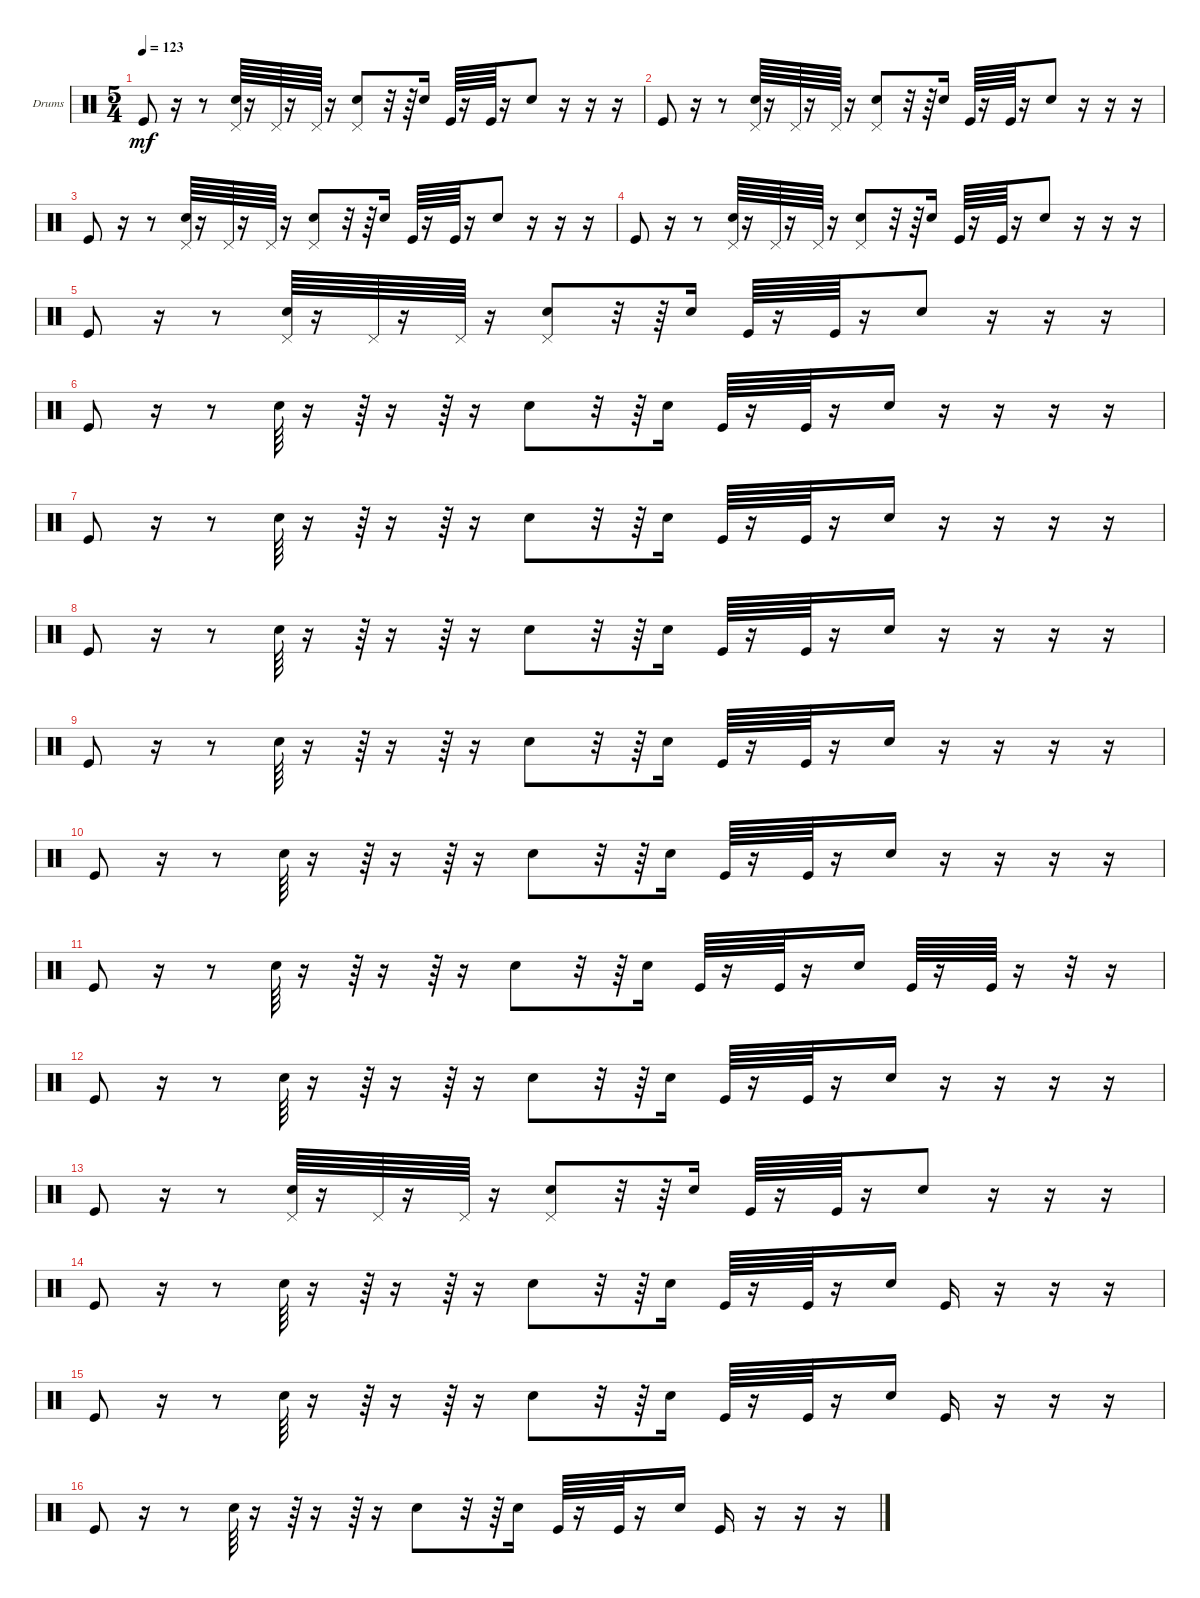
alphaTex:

\defaultSystemsLayout 4
\bracketExtendMode groupsimilarinstruments
\firstSystemTrackNameOrientation horizontal
\otherSystemsTrackNameOrientation horizontal
\track ("Drumkit" "Drums") {instrument percussion}
\staff {score}
\articulation defaults
\ts (5 4)
\tempo 123
\clef neutral
\ks c "Kick (hit)".8{dy mf}
r.16 r.8 ("Snare (hit) 2" "Pedal Hi-Hat (hit)").64 r.16 "Pedal Hi-Hat (hit)".64 r.16 "Pedal Hi-Hat (hit)".64 r.16 ("Snare (hit) 2" "Pedal Hi-Hat (hit)").8 r.32 r.64 "Snare (hit) 2".16 "Kick (hit)".64 r.16 "Kick (hit)".64 r.16 "Snare (hit) 2".8 r.16 r.16 r.16 |
"Kick (hit)".8 r.16 r.8 ("Snare (hit) 2" "Pedal Hi-Hat (hit)").64 r.16 "Pedal Hi-Hat (hit)".64 r.16 "Pedal Hi-Hat (hit)".64 r.16 ("Snare (hit) 2" "Pedal Hi-Hat (hit)").8 r.32 r.64 "Snare (hit) 2".16 "Kick (hit)".64 r.16 "Kick (hit)".64 r.16 "Snare (hit) 2".8 r.16 r.16 r.16 |
"Kick (hit)".8 r.16 r.8 ("Snare (hit) 2" "Pedal Hi-Hat (hit)").64 r.16 "Pedal Hi-Hat (hit)".64 r.16 "Pedal Hi-Hat (hit)".64 r.16 ("Snare (hit) 2" "Pedal Hi-Hat (hit)").8 r.32 r.64 "Snare (hit) 2".16 "Kick (hit)".64 r.16 "Kick (hit)".64 r.16 "Snare (hit) 2".8 r.16 r.16 r.16 |
"Kick (hit)".8 r.16 r.8 ("Snare (hit) 2" "Pedal Hi-Hat (hit)").64 r.16 "Pedal Hi-Hat (hit)".64 r.16 "Pedal Hi-Hat (hit)".64 r.16 ("Snare (hit) 2" "Pedal Hi-Hat (hit)").8 r.32 r.64 "Snare (hit) 2".16 "Kick (hit)".64 r.16 "Kick (hit)".64 r.16 "Snare (hit) 2".8 r.16 r.16 r.16 |
"Kick (hit)".8 r.16 r.8 ("Snare (hit) 2" "Pedal Hi-Hat (hit)").64 r.16 "Pedal Hi-Hat (hit)".64 r.16 "Pedal Hi-Hat (hit)".64 r.16 ("Snare (hit) 2" "Pedal Hi-Hat (hit)").8 r.32 r.64 "Snare (hit) 2".16 "Kick (hit)".64 r.16 "Kick (hit)".64 r.16 "Snare (hit) 2".8 r.16 r.16 r.16 |
"Kick (hit)".8 r.16 r.8 "Snare (hit) 2".64 r.16 r.64 r.16 r.64 r.16 "Snare (hit) 2".8 r.32 r.64 "Snare (hit) 2".16 "Kick (hit)".64 r.16 "Kick (hit)".64 r.16 "Snare (hit) 2".16 r.16 r.16 r.16 r.16 |
"Kick (hit)".8 r.16 r.8 "Snare (hit) 2".64 r.16 r.64 r.16 r.64 r.16 "Snare (hit) 2".8 r.32 r.64 "Snare (hit) 2".16 "Kick (hit)".64 r.16 "Kick (hit)".64 r.16 "Snare (hit) 2".16 r.16 r.16 r.16 r.16 |
"Kick (hit)".8 r.16 r.8 "Snare (hit) 2".64 r.16 r.64 r.16 r.64 r.16 "Snare (hit) 2".8 r.32 r.64 "Snare (hit) 2".16 "Kick (hit)".64 r.16 "Kick (hit)".64 r.16 "Snare (hit) 2".16 r.16 r.16 r.16 r.16 |
"Kick (hit)".8 r.16 r.8 "Snare (hit) 2".64 r.16 r.64 r.16 r.64 r.16 "Snare (hit) 2".8 r.32 r.64 "Snare (hit) 2".16 "Kick (hit)".64 r.16 "Kick (hit)".64 r.16 "Snare (hit) 2".16 r.16 r.16 r.16 r.16 |
"Kick (hit)".8 r.16 r.8 "Snare (hit) 2".64 r.16 r.64 r.16 r.64 r.16 "Snare (hit) 2".8 r.32 r.64 "Snare (hit) 2".16 "Kick (hit)".64 r.16 "Kick (hit)".64 r.16 "Snare (hit) 2".16 r.16 r.16 r.16 r.16 |
"Kick (hit)".8 r.16 r.8 "Snare (hit) 2".64 r.16 r.64 r.16 r.64 r.16 "Snare (hit) 2".8 r.32 r.64 "Snare (hit) 2".16 "Kick (hit)".64 r.16 "Kick (hit)".64 r.16 "Snare (hit) 2".16 "Kick (hit)".64 r.16 "Kick (hit)".64 r.16 r.32 r.16 |
"Kick (hit)".8 r.16 r.8 "Snare (hit) 2".64 r.16 r.64 r.16 r.64 r.16 "Snare (hit) 2".8 r.32 r.64 "Snare (hit) 2".16 "Kick (hit)".64 r.16 "Kick (hit)".64 r.16 "Snare (hit) 2".16 r.16 r.16 r.16 r.16 |
"Kick (hit)".8 r.16 r.8 ("Snare (hit) 2" "Pedal Hi-Hat (hit)").64 r.16 "Pedal Hi-Hat (hit)".64 r.16 "Pedal Hi-Hat (hit)".64 r.16 ("Snare (hit) 2" "Pedal Hi-Hat (hit)").8 r.32 r.64 "Snare (hit) 2".16 "Kick (hit)".64 r.16 "Kick (hit)".64 r.16 "Snare (hit) 2".8 r.16 r.16 r.16 |
"Kick (hit)".8 r.16 r.8 "Snare (hit) 2".64 r.16 r.64 r.16 r.64 r.16 "Snare (hit) 2".8 r.32 r.64 "Snare (hit) 2".16 "Kick (hit)".64 r.16 "Kick (hit)".64 r.16 "Snare (hit) 2".16 "Kick (hit)".16 r.16 r.16 r.16 |
"Kick (hit)".8 r.16 r.8 "Snare (hit) 2".64 r.16 r.64 r.16 r.64 r.16 "Snare (hit) 2".8 r.32 r.64 "Snare (hit) 2".16 "Kick (hit)".64 r.16 "Kick (hit)".64 r.16 "Snare (hit) 2".16 "Kick (hit)".16 r.16 r.16 r.16 |
"Kick (hit)".8 r.16 r.8 "Snare (hit) 2".64 r.16 r.64 r.16 r.64 r.16 "Snare (hit) 2".8 r.32 r.64 "Snare (hit) 2".16 "Kick (hit)".64 r.16 "Kick (hit)".64 r.16 "Snare (hit) 2".16 "Kick (hit)".16 r.16 r.16 r.16
